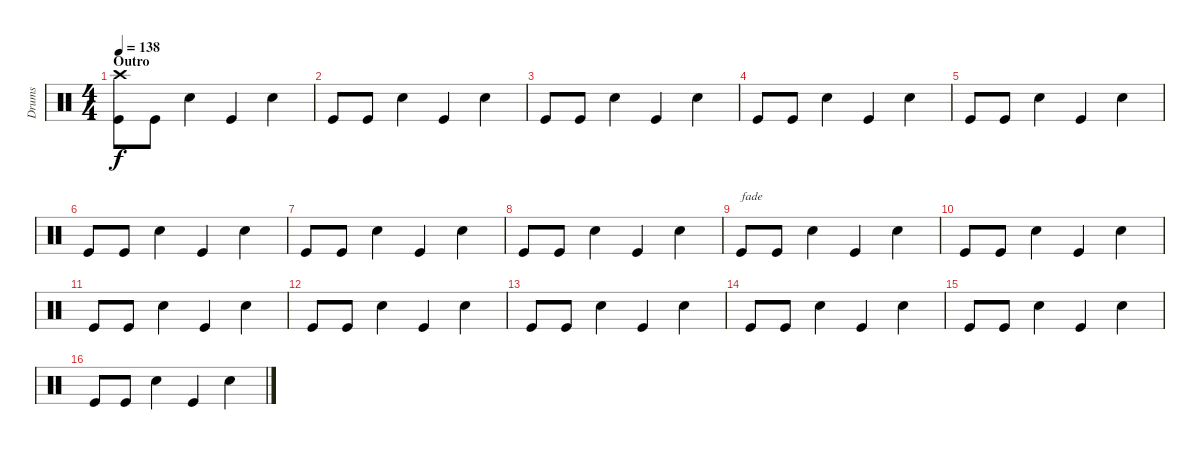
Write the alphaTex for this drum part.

\track ("Drums" "Drums") {instrument percussion}
\staff {score}
\articulation defaults
\ts (4 4)
\section ("" "Outro")
\tempo 138
\clef neutral
\ks c
("Crash high (hit)" "Kick (hit)").8{dy f} "Kick (hit)".8 "Snare (hit) 2".4 "Kick (hit)".4 "Snare (hit) 2".4 |
"Kick (hit)".8 "Kick (hit)".8 "Snare (hit) 2".4 "Kick (hit)".4 "Snare (hit) 2".4 |
"Kick (hit)".8 "Kick (hit)".8 "Snare (hit) 2".4 "Kick (hit)".4 "Snare (hit) 2".4 |
"Kick (hit)".8 "Kick (hit)".8 "Snare (hit) 2".4 "Kick (hit)".4 "Snare (hit) 2".4 |
"Kick (hit)".8 "Kick (hit)".8 "Snare (hit) 2".4 "Kick (hit)".4 "Snare (hit) 2".4 |
"Kick (hit)".8 "Kick (hit)".8 "Snare (hit) 2".4 "Kick (hit)".4 "Snare (hit) 2".4 |
"Kick (hit)".8 "Kick (hit)".8 "Snare (hit) 2".4 "Kick (hit)".4 "Snare (hit) 2".4 |
"Kick (hit)".8 "Kick (hit)".8 "Snare (hit) 2".4 "Kick (hit)".4 "Snare (hit) 2".4 |
"Kick (hit)".8{txt "fade " volume 10} "Kick (hit)".8 "Snare (hit) 2".4 "Kick (hit)".4 "Snare (hit) 2".4 |
"Kick (hit)".8{volume 8} "Kick (hit)".8 "Snare (hit) 2".4 "Kick (hit)".4 "Snare (hit) 2".4 |
"Kick (hit)".8{volume 6} "Kick (hit)".8 "Snare (hit) 2".4 "Kick (hit)".4 "Snare (hit) 2".4 |
"Kick (hit)".8{volume 5} "Kick (hit)".8 "Snare (hit) 2".4 "Kick (hit)".4 "Snare (hit) 2".4 |
"Kick (hit)".8 "Kick (hit)".8 "Snare (hit) 2".4 "Kick (hit)".4 "Snare (hit) 2".4 |
"Kick (hit)".8{volume 3} "Kick (hit)".8 "Snare (hit) 2".4 "Kick (hit)".4 "Snare (hit) 2".4 |
"Kick (hit)".8{volume 2} "Kick (hit)".8 "Snare (hit) 2".4 "Kick (hit)".4 "Snare (hit) 2".4 |
"Kick (hit)".8 "Kick (hit)".8 "Snare (hit) 2".4 "Kick (hit)".4 "Snare (hit) 2".4
